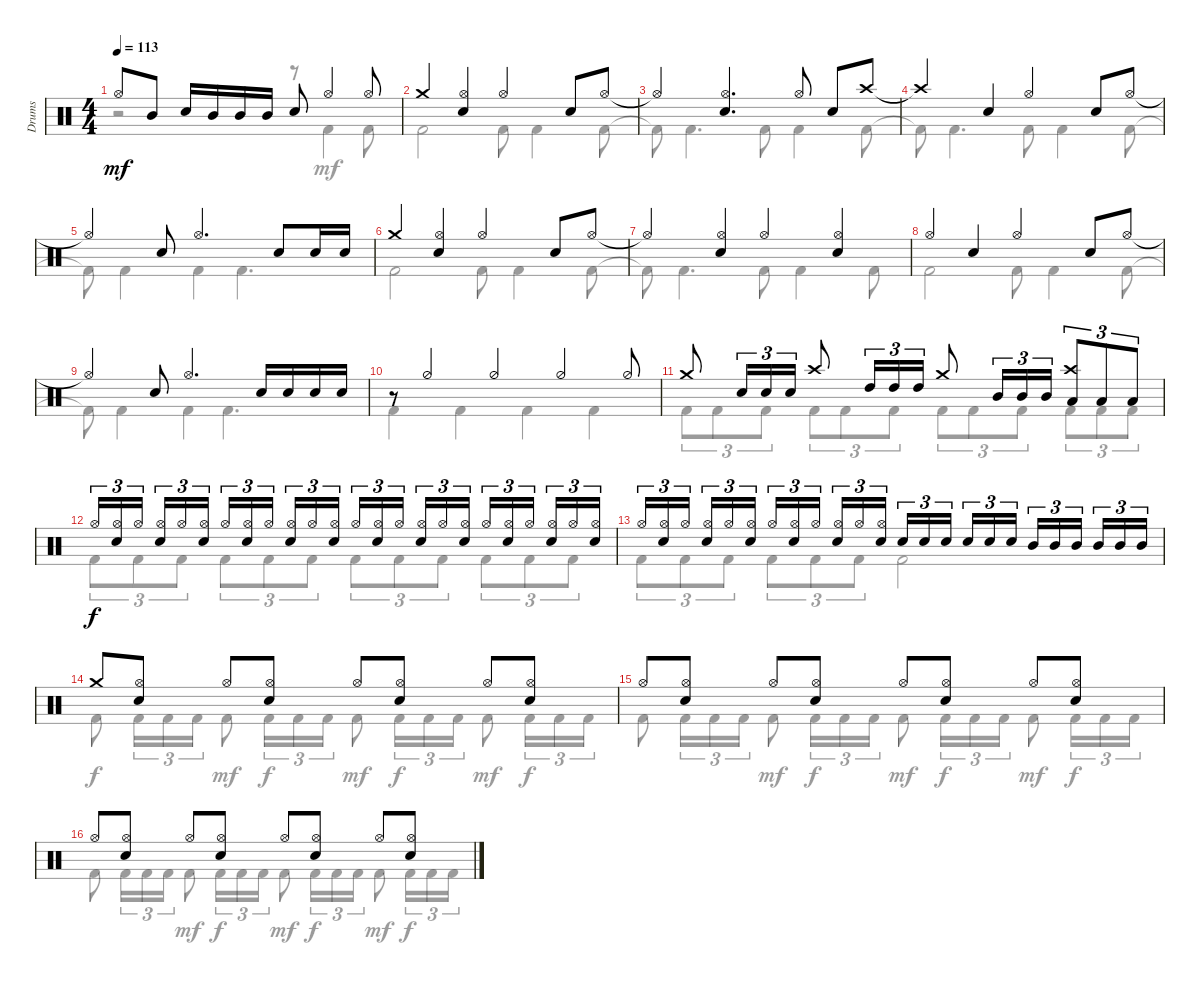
\track ("Drums" "Drums") {instrument percussion}
\staff {score}
\articulation defaults
\voice
\ts (4 4)
\tempo 113
\clef neutral
\ks c "Hi-Hat (open)"{t}.8{dy mf} "Mid Tom (hit)".8 "Snare (hit) 2".16 "Mid Tom (hit)".16 "Mid Tom (hit)".16 "Mid Tom (hit)".16 "Snare (hit) 2".8 "Hi-Hat (open)".4 "Hi-Hat (open)".8
|
"Crash medium (hit)".4 ("Hi-Hat (open)" "Snare (hit) 2").4 "Hi-Hat (open)".4 "Snare (hit) 2".8 "Hi-Hat (open)".8 |
"Hi-Hat (open)"{t}.4 ("Hi-Hat (open)" "Snare (hit) 2").4{d} "Hi-Hat (open)".8 "Snare (hit) 2".8 "Crash high (hit)".8 |
"Crash high (hit)"{t}.4 "Snare (hit) 2".4 "Hi-Hat (open)".4 "Snare (hit) 2".8 "Hi-Hat (open)".8 |
"Hi-Hat (open)"{t}.4 "Snare (hit) 2".8 "Hi-Hat (open)".4{d} "Snare (hit) 2".8 "Snare (hit) 2".16 "Snare (hit) 2".16 |
"Crash medium (hit)".4 ("Hi-Hat (open)" "Snare (hit) 2").4 "Hi-Hat (open)".4 "Snare (hit) 2".8 "Hi-Hat (open)".8 |
"Hi-Hat (open)"{t}.4 ("Hi-Hat (open)" "Snare (hit) 2").4 "Hi-Hat (open)".4 ("Hi-Hat (open)" "Snare (hit) 2").4 |
"Hi-Hat (open)".4 "Snare (hit) 2".4 "Hi-Hat (open)".4 "Snare (hit) 2".8 "Hi-Hat (open)".8 |
"Hi-Hat (open)"{t}.4 "Snare (hit) 2".8 "Hi-Hat (open)".4{d} "Snare (hit) 2".16 "Snare (hit) 2".16 "Snare (hit) 2".16 "Snare (hit) 2".16 |
r.8 "Hi-Hat (half)".4 "Hi-Hat (half)".4 "Hi-Hat (half)".4 "Hi-Hat (half)".8 |
"Crash medium (hit)".8 "Snare (hit) 2".16{tu (3 2)} "Snare (hit) 2".16{tu (3 2)} "Snare (hit) 2".16{tu (3 2)} "Crash high (hit)".8 "High Tom (hit)".16{tu (3 2)} "High Tom (hit)".16{tu (3 2)} "High Tom (hit)".16{tu (3 2)} "Crash medium (hit)".8 "Mid Tom (hit)".16{tu (3 2)} "Mid Tom (hit)".16{tu (3 2)} "Mid Tom (hit)".16{tu (3 2)} ("Crash high (hit)" "Low Tom (hit)").8{tu (3 2)} "Low Tom (hit)".8{tu (3 2)} "Low Tom (hit)".8{tu (3 2)} |
"Hi-Hat (open)".16{tu (3 2) dy f} ("Hi-Hat (open)" "Snare (hit) 2").16{tu (3 2)} "Hi-Hat (open)".16{tu (3 2) beam splitsecondary} ("Hi-Hat (open)" "Snare (hit) 2").16{tu (3 2)} "Hi-Hat (open)".16{tu (3 2)} ("Hi-Hat (open)" "Snare (hit) 2").16{tu (3 2)} "Hi-Hat (open)".16{tu (3 2)} ("Hi-Hat (open)" "Snare (hit) 2").16{tu (3 2)} "Hi-Hat (open)".16{tu (3 2) beam splitsecondary} ("Hi-Hat (open)" "Snare (hit) 2").16{tu (3 2)} "Hi-Hat (open)".16{tu (3 2)} ("Hi-Hat (open)" "Snare (hit) 2").16{tu (3 2)} "Hi-Hat (open)".16{tu (3 2)} ("Hi-Hat (open)" "Snare (hit) 2").16{tu (3 2)} "Hi-Hat (open)".16{tu (3 2) beam splitsecondary} ("Hi-Hat (open)" "Snare (hit) 2").16{tu (3 2)} "Hi-Hat (open)".16{tu (3 2)} ("Hi-Hat (open)" "Snare (hit) 2").16{tu (3 2)} "Hi-Hat (open)".16{tu (3 2)} ("Hi-Hat (open)" "Snare (hit) 2").16{tu (3 2)} "Hi-Hat (open)".16{tu (3 2) beam splitsecondary} ("Hi-Hat (open)" "Snare (hit) 2").16{tu (3 2)} "Hi-Hat (open)".16{tu (3 2)} ("Hi-Hat (open)" "Snare (hit) 2").16{tu (3 2)} |
"Hi-Hat (open)".16{tu (3 2)} ("Hi-Hat (open)" "Snare (hit) 2").16{tu (3 2)} "Hi-Hat (open)".16{tu (3 2) beam splitsecondary} ("Hi-Hat (open)" "Snare (hit) 2").16{tu (3 2)} "Hi-Hat (open)".16{tu (3 2)} ("Hi-Hat (open)" "Snare (hit) 2").16{tu (3 2)} "Hi-Hat (open)".16{tu (3 2)} ("Hi-Hat (open)" "Snare (hit) 2").16{tu (3 2)} "Hi-Hat (open)".16{tu (3 2) beam splitsecondary} ("Hi-Hat (open)" "Snare (hit) 2").16{tu (3 2)} "Hi-Hat (open)".16{tu (3 2)} ("Hi-Hat (open)" "Snare (hit) 2").16{tu (3 2)} "Snare (hit) 2".16{tu (3 2)} "Snare (hit) 2".16{tu (3 2)} "Snare (hit) 2".16{tu (3 2) beam splitsecondary} "Snare (hit) 2".16{tu (3 2)} "Snare (hit) 2".16{tu (3 2)} "Snare (hit) 2".16{tu (3 2)} "Mid Tom (hit)".16{tu (3 2)} "Mid Tom (hit)".16{tu (3 2)} "Mid Tom (hit)".16{tu (3 2) beam splitsecondary} "Mid Tom (hit)".16{tu (3 2)} "Mid Tom (hit)".16{tu (3 2)} "Mid Tom (hit)".16{tu (3 2)} |
"Crash medium (hit)".8 ("Hi-Hat (open)" "Snare (hit) 2").8 "Hi-Hat (open)".8 ("Hi-Hat (open)" "Snare (hit) 2").8 "Hi-Hat (open)".8 ("Hi-Hat (open)" "Snare (hit) 2").8 "Hi-Hat (open)".8 ("Hi-Hat (open)" "Snare (hit) 2").8 |
"Hi-Hat (open)".8 ("Hi-Hat (open)" "Snare (hit) 2").8 "Hi-Hat (open)".8 ("Hi-Hat (open)" "Snare (hit) 2").8 "Hi-Hat (open)".8 ("Hi-Hat (open)" "Snare (hit) 2").8 "Hi-Hat (open)".8 ("Hi-Hat (open)" "Snare (hit) 2").8 |
"Hi-Hat (open)".8 ("Hi-Hat (open)" "Snare (hit) 2").8 "Hi-Hat (open)".8 ("Hi-Hat (open)" "Snare (hit) 2").8 "Hi-Hat (open)".8 ("Hi-Hat (open)" "Snare (hit) 2").8 "Hi-Hat (open)".8 ("Hi-Hat (open)" "Snare (hit) 2").8
\voice
\clef neutral
\ottava regular
\simile none
\ks c
r.2{dy mf} r.8 "Kick (hit) 2".4 "Kick (hit) 2".8 |
"Kick (hit) 2".2 "Kick (hit) 2".8 "Kick (hit) 2".4 "Kick (hit) 2".8 |
"Kick (hit) 2"{t}.8 "Kick (hit) 2".4{d} "Kick (hit) 2".8 "Kick (hit) 2".4 "Kick (hit) 2".8 |
"Kick (hit) 2"{t}.8 "Kick (hit) 2".4{d} "Kick (hit) 2".8 "Kick (hit) 2".4 "Kick (hit) 2".8 |
"Kick (hit) 2"{t}.8 "Kick (hit) 2".4 "Kick (hit) 2".4 "Kick (hit) 2".4{d} |
"Kick (hit) 2".2 "Kick (hit) 2".8 "Kick (hit) 2".4 "Kick (hit) 2".8 |
"Kick (hit) 2"{t}.8 "Kick (hit) 2".4{d} "Kick (hit) 2".8 "Kick (hit) 2".4 "Kick (hit) 2".8 |
"Kick (hit) 2".2 "Kick (hit) 2".8 "Kick (hit) 2".4 "Kick (hit) 2".8 |
"Kick (hit) 2"{t}.8 "Kick (hit) 2".4 "Kick (hit) 2".4 "Kick (hit) 2".4{d} |
"Kick (hit) 2".4 "Kick (hit) 2".4 "Kick (hit) 2".4 "Kick (hit) 2".4 |
"Kick (hit) 2".8{tu (3 2)} "Kick (hit) 2".8{tu (3 2)} "Kick (hit) 2".8{tu (3 2)} "Kick (hit) 2".8{tu (3 2)} "Kick (hit) 2".8{tu (3 2)} "Kick (hit) 2".8{tu (3 2)} "Kick (hit) 2".8{tu (3 2)} "Kick (hit) 2".8{tu (3 2)} "Kick (hit) 2".8{tu (3 2)} "Kick (hit) 2".8{tu (3 2)} "Kick (hit) 2".8{tu (3 2)} "Kick (hit) 2".8{tu (3 2)} |
"Kick (hit) 2".8{tu (3 2)} "Kick (hit) 2".8{tu (3 2)} "Kick (hit) 2".8{tu (3 2)} "Kick (hit) 2".8{tu (3 2)} "Kick (hit) 2".8{tu (3 2)} "Kick (hit) 2".8{tu (3 2)} "Kick (hit) 2".8{tu (3 2)} "Kick (hit) 2".8{tu (3 2)} "Kick (hit) 2".8{tu (3 2)} "Kick (hit) 2".8{tu (3 2)} "Kick (hit) 2".8{tu (3 2)} "Kick (hit) 2".8{tu (3 2)} |
"Kick (hit) 2".8{tu (3 2)} "Kick (hit) 2".8{tu (3 2)} "Kick (hit) 2".8{tu (3 2)} "Kick (hit) 2".8{tu (3 2)} "Kick (hit) 2".8{tu (3 2)} "Kick (hit) 2".8{tu (3 2)} "Kick (hit) 2".2 |
"Kick (hit) 2".8{dy f} "Kick (hit) 2".16{tu (3 2)} "Kick (hit) 2".16{tu (3 2)} "Kick (hit) 2".16{tu (3 2)} "Kick (hit) 2".8{dy mf} "Kick (hit) 2".16{tu (3 2) dy f} "Kick (hit) 2".16{tu (3 2)} "Kick (hit) 2".16{tu (3 2)} "Kick (hit) 2".8{dy mf} "Kick (hit) 2".16{tu (3 2) dy f} "Kick (hit) 2".16{tu (3 2)} "Kick (hit) 2".16{tu (3 2)} "Kick (hit) 2".8{dy mf} "Kick (hit) 2".16{tu (3 2) dy f} "Kick (hit) 2".16{tu (3 2)} "Kick (hit) 2".16{tu (3 2)} |
"Kick (hit) 2".8 "Kick (hit) 2".16{tu (3 2)} "Kick (hit) 2".16{tu (3 2)} "Kick (hit) 2".16{tu (3 2)} "Kick (hit) 2".8{dy mf} "Kick (hit) 2".16{tu (3 2) dy f} "Kick (hit) 2".16{tu (3 2)} "Kick (hit) 2".16{tu (3 2)} "Kick (hit) 2".8{dy mf} "Kick (hit) 2".16{tu (3 2) dy f} "Kick (hit) 2".16{tu (3 2)} "Kick (hit) 2".16{tu (3 2)} "Kick (hit) 2".8{dy mf} "Kick (hit) 2".16{tu (3 2) dy f} "Kick (hit) 2".16{tu (3 2)} "Kick (hit) 2".16{tu (3 2)} |
"Kick (hit) 2".8 "Kick (hit) 2".16{tu (3 2)} "Kick (hit) 2".16{tu (3 2)} "Kick (hit) 2".16{tu (3 2)} "Kick (hit) 2".8{dy mf} "Kick (hit) 2".16{tu (3 2) dy f} "Kick (hit) 2".16{tu (3 2)} "Kick (hit) 2".16{tu (3 2)} "Kick (hit) 2".8{dy mf} "Kick (hit) 2".16{tu (3 2) dy f} "Kick (hit) 2".16{tu (3 2)} "Kick (hit) 2".16{tu (3 2)} "Kick (hit) 2".8{dy mf} "Kick (hit) 2".16{tu (3 2) dy f} "Kick (hit) 2".16{tu (3 2)} "Kick (hit) 2".16{tu (3 2)}
